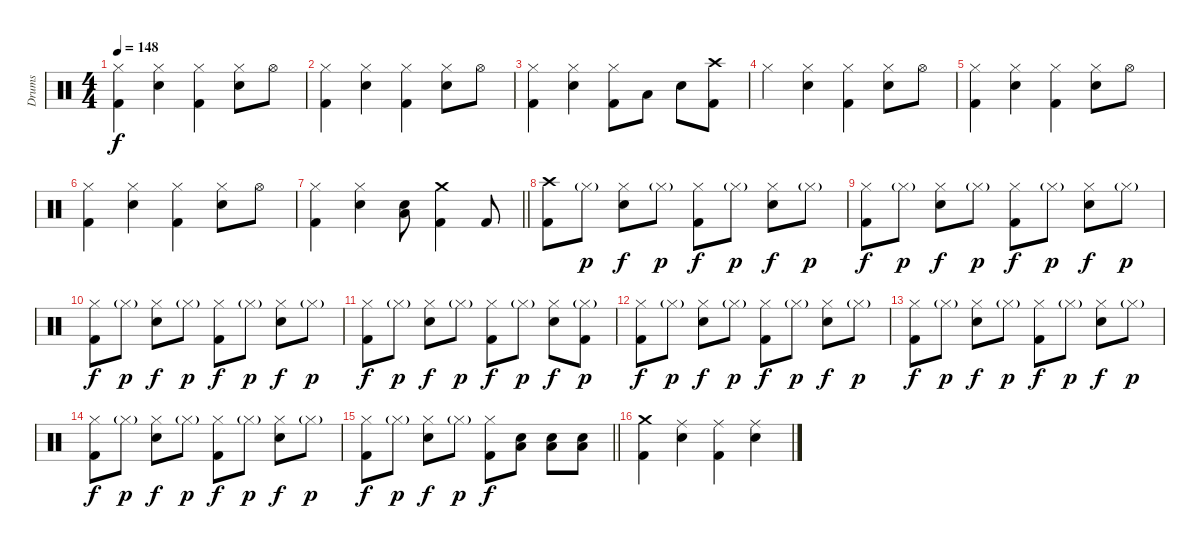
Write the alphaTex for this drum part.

\track ("Drums" "Drums") {instrument percussion}
\staff {score}
\articulation defaults
\ts (4 4)
\tempo 148
\clef neutral
\ks c
("Hi-Hat (closed)" "Kick (hit) 2").4{dy f} ("Hi-Hat (closed)" "Electric Snare (hit)").4 ("Hi-Hat (closed)" "Kick (hit) 2").4 ("Hi-Hat (closed)" "Electric Snare (hit)").8 "Hi-Hat (open)".8 |
("Hi-Hat (closed)" "Kick (hit) 2").4 ("Hi-Hat (closed)" "Electric Snare (hit)").4 ("Hi-Hat (closed)" "Kick (hit) 2").4 ("Hi-Hat (closed)" "Electric Snare (hit)").8 "Hi-Hat (open)".8 |
("Hi-Hat (closed)" "Kick (hit) 2").4 ("Hi-Hat (closed)" "Electric Snare (hit)").4 ("Hi-Hat (closed)" "Kick (hit) 2").8 "Low Tom (hit)".8 "Electric Snare (hit)".8 ("Kick (hit) 2" "Crash high (hit)").8 |
"Hi-Hat (closed)".4 ("Electric Snare (hit)" "Hi-Hat (closed)").4 ("Kick (hit) 2" "Hi-Hat (closed)").4 ("Electric Snare (hit)" "Hi-Hat (closed)").8 "Hi-Hat (open)".8 |
("Hi-Hat (closed)" "Kick (hit) 2").4 ("Hi-Hat (closed)" "Electric Snare (hit)").4 ("Hi-Hat (closed)" "Kick (hit) 2").4 ("Hi-Hat (closed)" "Electric Snare (hit)").8 "Hi-Hat (open)".8 |
("Hi-Hat (closed)" "Kick (hit) 2").4 ("Hi-Hat (closed)" "Electric Snare (hit)").4 ("Hi-Hat (closed)" "Kick (hit) 2").4 ("Hi-Hat (closed)" "Electric Snare (hit)").8 "Hi-Hat (open)".8 |
\barLineRight lightlight
("Hi-Hat (closed)" "Kick (hit) 2").4 ("Hi-Hat (closed)" "Electric Snare (hit)").4 ("Low Floor Tom (hit)" "Electric Snare (hit)").8 ("Crash medium (hit)" "Kick (hit) 2").4 "Kick (hit) 2".8 |
("Crash high (hit)" "Kick (hit) 2").8 "Hi-Hat (closed)"{g}.8{dy p} ("Hi-Hat (closed)" "Electric Snare (hit)").8{dy f} "Hi-Hat (closed)"{g}.8{dy p} ("Hi-Hat (closed)" "Kick (hit) 2").8{dy f} "Hi-Hat (closed)"{g}.8{dy p} ("Hi-Hat (closed)" "Electric Snare (hit)").8{dy f} "Hi-Hat (closed)"{g}.8{dy p} |
("Hi-Hat (closed)" "Kick (hit) 2").8{dy f} "Hi-Hat (closed)"{g}.8{dy p} ("Hi-Hat (closed)" "Electric Snare (hit)").8{dy f} "Hi-Hat (closed)"{g}.8{dy p} ("Hi-Hat (closed)" "Kick (hit) 2").8{dy f} "Hi-Hat (closed)"{g}.8{dy p} ("Hi-Hat (closed)" "Electric Snare (hit)").8{dy f} "Hi-Hat (closed)"{g}.8{dy p} |
("Hi-Hat (closed)" "Kick (hit) 2").8{dy f} "Hi-Hat (closed)"{g}.8{dy p} ("Hi-Hat (closed)" "Electric Snare (hit)").8{dy f} "Hi-Hat (closed)"{g}.8{dy p} ("Hi-Hat (closed)" "Kick (hit) 2").8{dy f} "Hi-Hat (closed)"{g}.8{dy p} ("Hi-Hat (closed)" "Electric Snare (hit)").8{dy f} "Hi-Hat (closed)"{g}.8{dy p} |
("Hi-Hat (closed)" "Kick (hit) 2").8{dy f} "Hi-Hat (closed)"{g}.8{dy p} ("Hi-Hat (closed)" "Electric Snare (hit)").8{dy f} "Hi-Hat (closed)"{g}.8{dy p} ("Hi-Hat (closed)" "Kick (hit) 2").8{dy f} "Hi-Hat (closed)"{g}.8{dy p} ("Hi-Hat (closed)" "Electric Snare (hit)").8{dy f} ("Hi-Hat (closed)"{g} "Kick (hit) 2").8{dy p} |
("Hi-Hat (closed)" "Kick (hit) 2").8{dy f} "Hi-Hat (closed)"{g}.8{dy p} ("Hi-Hat (closed)" "Electric Snare (hit)").8{dy f} "Hi-Hat (closed)"{g}.8{dy p} ("Hi-Hat (closed)" "Kick (hit) 2").8{dy f} "Hi-Hat (closed)"{g}.8{dy p} ("Hi-Hat (closed)" "Electric Snare (hit)").8{dy f} "Hi-Hat (closed)"{g}.8{dy p} |
("Hi-Hat (closed)" "Kick (hit) 2").8{dy f} "Hi-Hat (closed)"{g}.8{dy p} ("Hi-Hat (closed)" "Electric Snare (hit)").8{dy f} "Hi-Hat (closed)"{g}.8{dy p} ("Hi-Hat (closed)" "Kick (hit) 2").8{dy f} "Hi-Hat (closed)"{g}.8{dy p} ("Hi-Hat (closed)" "Electric Snare (hit)").8{dy f} "Hi-Hat (closed)"{g}.8{dy p} |
("Hi-Hat (closed)" "Kick (hit) 2").8{dy f} "Hi-Hat (closed)"{g}.8{dy p} ("Hi-Hat (closed)" "Electric Snare (hit)").8{dy f} "Hi-Hat (closed)"{g}.8{dy p} ("Hi-Hat (closed)" "Kick (hit) 2").8{dy f} "Hi-Hat (closed)"{g}.8{dy p} ("Hi-Hat (closed)" "Electric Snare (hit)").8{dy f} "Hi-Hat (closed)"{g}.8{dy p} |
\barLineRight lightlight
("Hi-Hat (closed)" "Kick (hit) 2").8{dy f} "Hi-Hat (closed)"{g}.8{dy p} ("Hi-Hat (closed)" "Electric Snare (hit)").8{dy f} "Hi-Hat (closed)"{g}.8{dy p} ("Hi-Hat (closed)" "Kick (hit) 2").8{dy f} ("Low Floor Tom (hit)" "Electric Snare (hit)").8 ("Low Floor Tom (hit)" "Electric Snare (hit)").8 ("Low Floor Tom (hit)" "Electric Snare (hit)").8 |
("Crash medium (hit)" "Kick (hit) 2").4 ("Ride (middle)" "Electric Snare (hit)").4 ("Ride (middle)" "Kick (hit) 2").4 ("Ride (middle)" "Electric Snare (hit)").4
